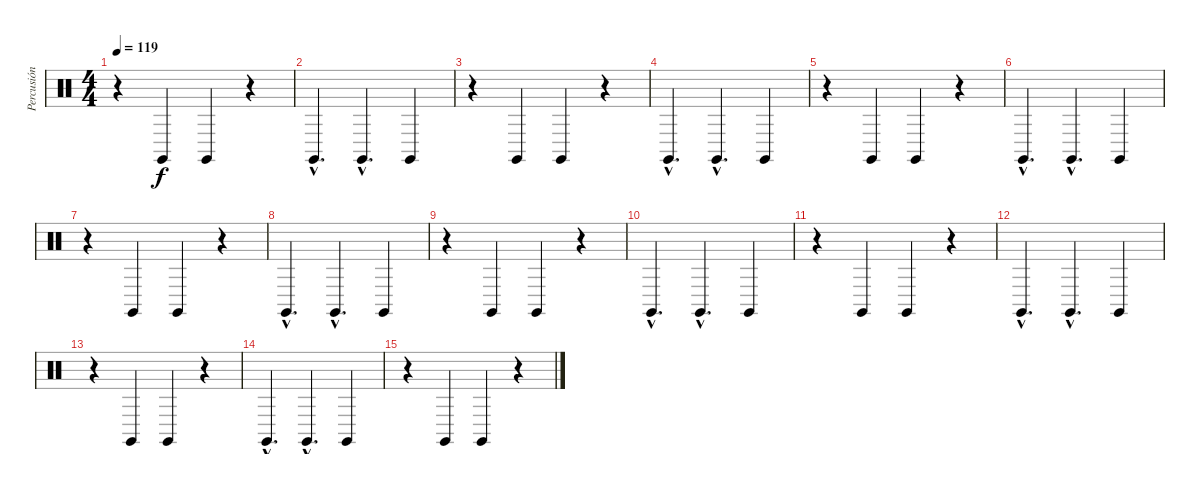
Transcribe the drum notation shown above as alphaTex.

\track ("Percusión" "Percusión") {instrument percussion}
\staff {score}
\articulation defaults
\ts (4 4)
\tempo 119
\clef neutral
\ks c
r.4{dy f} "Claves (hit)".4 "Claves (hit)".4 r.4 |
"Claves (hit)"{hac}.4{d} "Claves (hit)"{hac}.4{d} "Claves (hit)".4 |
r.4 "Claves (hit)".4 "Claves (hit)".4 r.4 |
"Claves (hit)"{hac}.4{d} "Claves (hit)"{hac}.4{d} "Claves (hit)".4 |
r.4 "Claves (hit)".4 "Claves (hit)".4 r.4 |
"Claves (hit)"{hac}.4{d} "Claves (hit)"{hac}.4{d} "Claves (hit)".4 |
r.4 "Claves (hit)".4 "Claves (hit)".4 r.4 |
"Claves (hit)"{hac}.4{d} "Claves (hit)"{hac}.4{d} "Claves (hit)".4 |
r.4 "Claves (hit)".4 "Claves (hit)".4 r.4 |
"Claves (hit)"{hac}.4{d} "Claves (hit)"{hac}.4{d} "Claves (hit)".4 |
r.4 "Claves (hit)".4 "Claves (hit)".4 r.4 |
"Claves (hit)"{hac}.4{d} "Claves (hit)"{hac}.4{d} "Claves (hit)".4 |
r.4 "Claves (hit)".4 "Claves (hit)".4 r.4 |
"Claves (hit)"{hac}.4{d} "Claves (hit)"{hac}.4{d} "Claves (hit)".4 |
r.4 "Claves (hit)".4 "Claves (hit)".4 r.4
